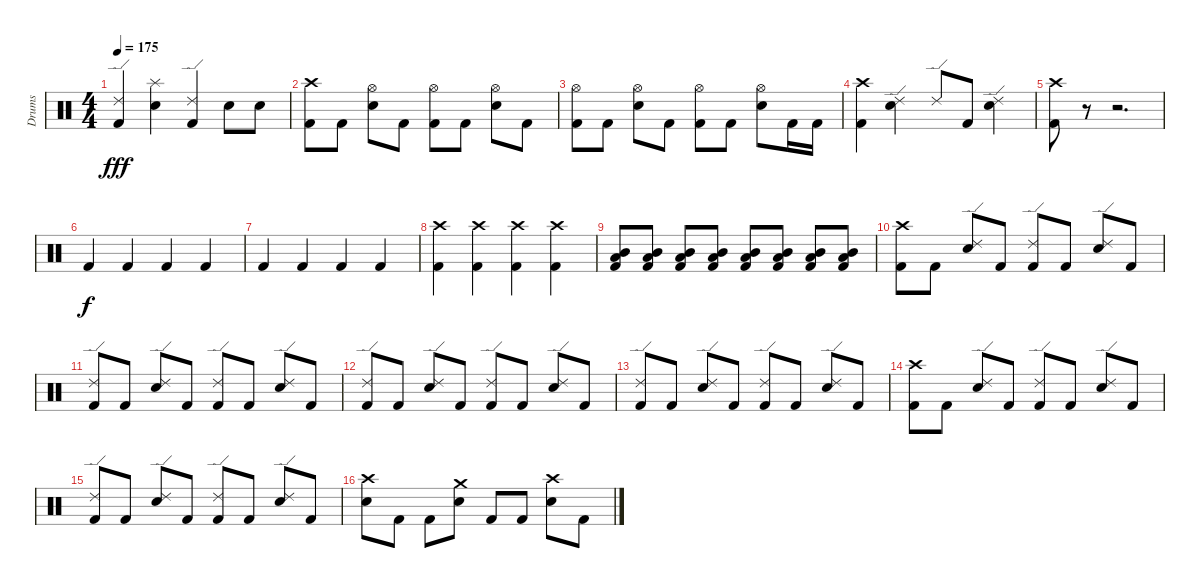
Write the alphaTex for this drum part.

\track ("Drums" "Drums") {instrument percussion}
\staff {score}
\articulation defaults
\ts (4 4)
\tempo 175
\clef neutral
\ks c
("Kick (hit) 2" "Ride (edge) 2").4{dy fff} ("Electric Snare (hit)" "Splash (hit)").4 ("Kick (hit) 2" "Ride (edge) 2").4 "Electric Snare (hit)".8 "Electric Snare (hit)".8 |
("Kick (hit) 2" "Crash high (hit)").8 "Kick (hit) 2".8 ("Electric Snare (hit)" "Hi-Hat (open)").8 "Kick (hit) 2".8 ("Kick (hit) 2" "Hi-Hat (open)").8 "Kick (hit) 2".8 ("Electric Snare (hit)" "Hi-Hat (open)").8 "Kick (hit) 2".8 |
("Kick (hit) 2" "Hi-Hat (open)").8 "Kick (hit) 2".8 ("Electric Snare (hit)" "Hi-Hat (open)").8 "Kick (hit) 2".8 ("Kick (hit) 2" "Hi-Hat (open)").8 "Kick (hit) 2".8 ("Electric Snare (hit)" "Hi-Hat (open)").8 "Kick (hit) 2".16 "Kick (hit) 2".16 |
("Kick (hit) 2" "Crash high (hit)").4 ("Electric Snare (hit)" "Ride (edge) 2").4 "Ride (edge) 2".8 "Kick (hit) 2".8 ("Electric Snare (hit)" "Ride (edge) 2").4 |
("Kick (hit) 2" "Crash high (hit)").8 r.8 r.2{d} |
"Kick (hit) 2".4{dy f} "Kick (hit) 2".4 "Kick (hit) 2".4 "Kick (hit) 2".4 |
"Kick (hit) 2".4 "Kick (hit) 2".4 "Kick (hit) 2".4 "Kick (hit) 2".4 |
("Kick (hit) 2" "Crash high (hit)").4 ("Kick (hit) 2" "Crash high (hit)").4 ("Kick (hit) 2" "Crash high (hit)").4 ("Kick (hit) 2" "Crash high (hit)").4 |
("Kick (hit) 2" "Mid Tom (hit)" "Low Tom (hit)").8 ("Kick (hit) 2" "Mid Tom (hit)" "Low Tom (hit)").8 ("Kick (hit) 2" "Mid Tom (hit)" "Low Tom (hit)").8 ("Kick (hit) 2" "Mid Tom (hit)" "Low Tom (hit)").8 ("Kick (hit) 2" "Mid Tom (hit)" "Low Tom (hit)").8 ("Kick (hit) 2" "Mid Tom (hit)" "Low Tom (hit)").8 ("Kick (hit) 2" "Mid Tom (hit)" "Low Tom (hit)").8 ("Kick (hit) 2" "Mid Tom (hit)" "Low Tom (hit)").8 |
("Kick (hit) 2" "Crash high (hit)").8 "Kick (hit) 2".8 ("Electric Snare (hit)" "Ride (edge) 2").8 "Kick (hit) 2".8 ("Kick (hit) 2" "Ride (edge) 2").8 "Kick (hit) 2".8 ("Electric Snare (hit)" "Ride (edge) 2").8 "Kick (hit) 2".8 |
("Kick (hit) 2" "Ride (edge) 2").8 "Kick (hit) 2".8 ("Electric Snare (hit)" "Ride (edge) 2").8 "Kick (hit) 2".8 ("Kick (hit) 2" "Ride (edge) 2").8 "Kick (hit) 2".8 ("Electric Snare (hit)" "Ride (edge) 2").8 "Kick (hit) 2".8 |
("Kick (hit) 2" "Ride (edge) 2").8 "Kick (hit) 2".8 ("Electric Snare (hit)" "Ride (edge) 2").8 "Kick (hit) 2".8 ("Kick (hit) 2" "Ride (edge) 2").8 "Kick (hit) 2".8 ("Electric Snare (hit)" "Ride (edge) 2").8 "Kick (hit) 2".8 |
("Kick (hit) 2" "Ride (edge) 2").8 "Kick (hit) 2".8 ("Electric Snare (hit)" "Ride (edge) 2").8 "Kick (hit) 2".8 ("Kick (hit) 2" "Ride (edge) 2").8 "Kick (hit) 2".8 ("Electric Snare (hit)" "Ride (edge) 2").8 "Kick (hit) 2".8 |
("Kick (hit) 2" "Crash high (hit)").8 "Kick (hit) 2".8 ("Electric Snare (hit)" "Ride (edge) 2").8 "Kick (hit) 2".8 ("Kick (hit) 2" "Ride (edge) 2").8 "Kick (hit) 2".8 ("Electric Snare (hit)" "Ride (edge) 2").8 "Kick (hit) 2".8 |
("Kick (hit) 2" "Ride (edge) 2").8 "Kick (hit) 2".8 ("Electric Snare (hit)" "Ride (edge) 2").8 "Kick (hit) 2".8 ("Kick (hit) 2" "Ride (edge) 2").8 "Kick (hit) 2".8 ("Electric Snare (hit)" "Ride (edge) 2").8 "Kick (hit) 2".8 |
("Electric Snare (hit)" "Crash high (hit)").8 "Kick (hit) 2".8 "Kick (hit) 2".8 ("Electric Snare (hit)" "Crash medium (hit)").8 "Kick (hit) 2".8 "Kick (hit) 2".8 ("Electric Snare (hit)" "Crash high (hit)").8 "Kick (hit) 2".8
